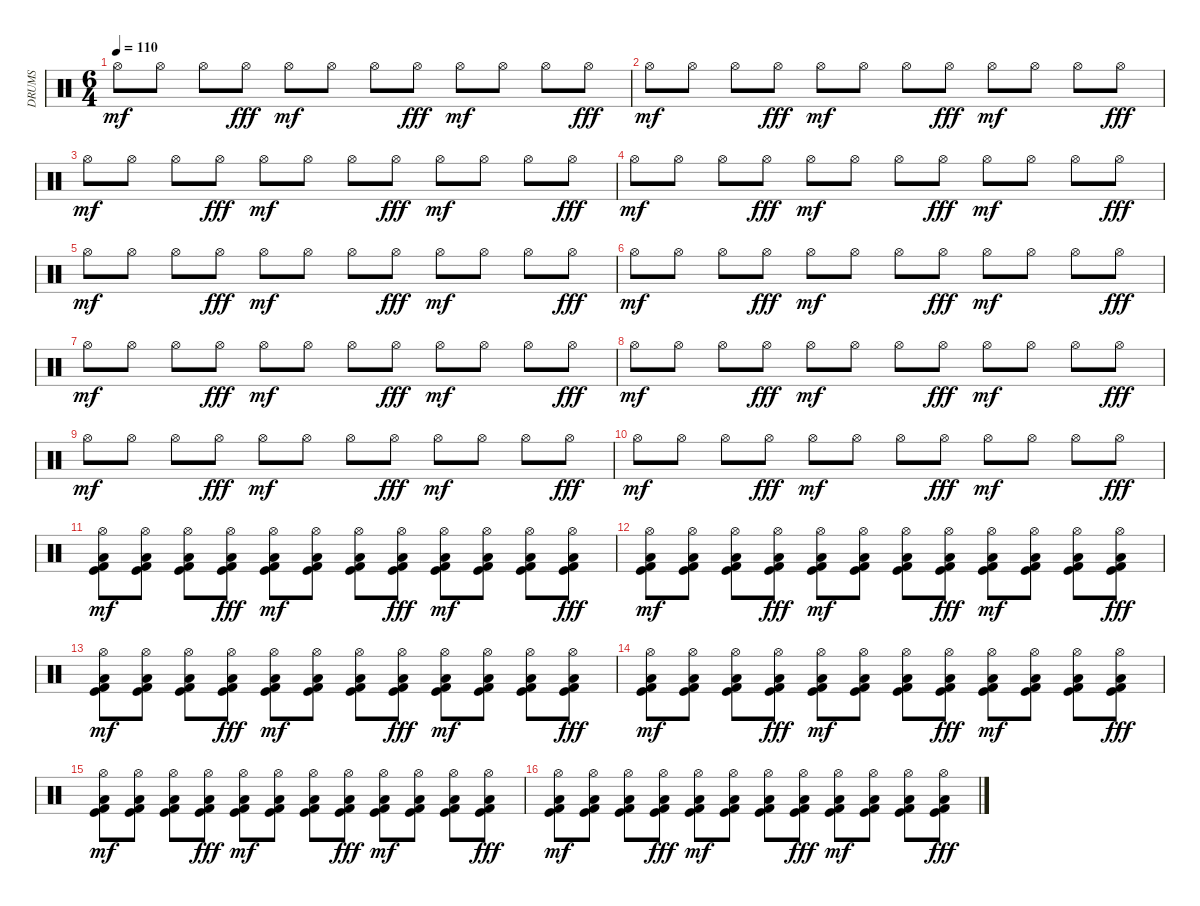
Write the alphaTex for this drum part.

\track ("DRUMS" "DRUMS") {instrument percussion}
\staff {score}
\articulation defaults
\ts (6 4)
\tempo 110
\clef neutral
\ks c "Hi-Hat (open)".8{dy mf} "Hi-Hat (open)".8 "Hi-Hat (open)".8 "Hi-Hat (open)".8{dy fff} "Hi-Hat (open)".8{dy mf} "Hi-Hat (open)".8 "Hi-Hat (open)".8 "Hi-Hat (open)".8{dy fff} "Hi-Hat (open)".8{dy mf} "Hi-Hat (open)".8 "Hi-Hat (open)".8 "Hi-Hat (open)".8{dy fff}
|
"Hi-Hat (open)".8{dy mf} "Hi-Hat (open)".8 "Hi-Hat (open)".8 "Hi-Hat (open)".8{dy fff} "Hi-Hat (open)".8{dy mf} "Hi-Hat (open)".8 "Hi-Hat (open)".8 "Hi-Hat (open)".8{dy fff} "Hi-Hat (open)".8{dy mf} "Hi-Hat (open)".8 "Hi-Hat (open)".8 "Hi-Hat (open)".8{dy fff} |
"Hi-Hat (open)".8{dy mf} "Hi-Hat (open)".8 "Hi-Hat (open)".8 "Hi-Hat (open)".8{dy fff} "Hi-Hat (open)".8{dy mf} "Hi-Hat (open)".8 "Hi-Hat (open)".8 "Hi-Hat (open)".8{dy fff} "Hi-Hat (open)".8{dy mf} "Hi-Hat (open)".8 "Hi-Hat (open)".8 "Hi-Hat (open)".8{dy fff} |
"Hi-Hat (open)".8{dy mf} "Hi-Hat (open)".8 "Hi-Hat (open)".8 "Hi-Hat (open)".8{dy fff} "Hi-Hat (open)".8{dy mf} "Hi-Hat (open)".8 "Hi-Hat (open)".8 "Hi-Hat (open)".8{dy fff} "Hi-Hat (open)".8{dy mf} "Hi-Hat (open)".8 "Hi-Hat (open)".8 "Hi-Hat (open)".8{dy fff} |
"Hi-Hat (open)".8{dy mf} "Hi-Hat (open)".8 "Hi-Hat (open)".8 "Hi-Hat (open)".8{dy fff} "Hi-Hat (open)".8{dy mf} "Hi-Hat (open)".8 "Hi-Hat (open)".8 "Hi-Hat (open)".8{dy fff} "Hi-Hat (open)".8{dy mf} "Hi-Hat (open)".8 "Hi-Hat (open)".8 "Hi-Hat (open)".8{dy fff} |
"Hi-Hat (open)".8{dy mf} "Hi-Hat (open)".8 "Hi-Hat (open)".8 "Hi-Hat (open)".8{dy fff} "Hi-Hat (open)".8{dy mf} "Hi-Hat (open)".8 "Hi-Hat (open)".8 "Hi-Hat (open)".8{dy fff} "Hi-Hat (open)".8{dy mf} "Hi-Hat (open)".8 "Hi-Hat (open)".8 "Hi-Hat (open)".8{dy fff} |
"Hi-Hat (open)".8{dy mf} "Hi-Hat (open)".8 "Hi-Hat (open)".8 "Hi-Hat (open)".8{dy fff} "Hi-Hat (open)".8{dy mf} "Hi-Hat (open)".8 "Hi-Hat (open)".8 "Hi-Hat (open)".8{dy fff} "Hi-Hat (open)".8{dy mf} "Hi-Hat (open)".8 "Hi-Hat (open)".8 "Hi-Hat (open)".8{dy fff} |
"Hi-Hat (open)".8{dy mf} "Hi-Hat (open)".8 "Hi-Hat (open)".8 "Hi-Hat (open)".8{dy fff} "Hi-Hat (open)".8{dy mf} "Hi-Hat (open)".8 "Hi-Hat (open)".8 "Hi-Hat (open)".8{dy fff} "Hi-Hat (open)".8{dy mf} "Hi-Hat (open)".8 "Hi-Hat (open)".8 "Hi-Hat (open)".8{dy fff} |
"Hi-Hat (open)".8{dy mf} "Hi-Hat (open)".8 "Hi-Hat (open)".8 "Hi-Hat (open)".8{dy fff} "Hi-Hat (open)".8{dy mf} "Hi-Hat (open)".8 "Hi-Hat (open)".8 "Hi-Hat (open)".8{dy fff} "Hi-Hat (open)".8{dy mf} "Hi-Hat (open)".8 "Hi-Hat (open)".8 "Hi-Hat (open)".8{dy fff} |
"Hi-Hat (open)".8{dy mf} "Hi-Hat (open)".8 "Hi-Hat (open)".8 "Hi-Hat (open)".8{dy fff} "Hi-Hat (open)".8{dy mf} "Hi-Hat (open)".8 "Hi-Hat (open)".8 "Hi-Hat (open)".8{dy fff} "Hi-Hat (open)".8{dy mf} "Hi-Hat (open)".8 "Hi-Hat (open)".8 "Hi-Hat (open)".8{dy fff} |
("Kick (hit)" "Kick (hit) 2" "Low Tom (hit)" "Hi-Hat (open)").8{dy mf} ("Kick (hit)" "Kick (hit) 2" "Low Tom (hit)" "Hi-Hat (open)").8 ("Kick (hit)" "Kick (hit) 2" "Low Tom (hit)" "Hi-Hat (open)").8 ("Kick (hit)" "Kick (hit) 2" "Low Tom (hit)" "Hi-Hat (open)").8{dy fff} ("Kick (hit)" "Kick (hit) 2" "Low Tom (hit)" "Hi-Hat (open)").8{dy mf} ("Kick (hit)" "Kick (hit) 2" "Low Tom (hit)" "Hi-Hat (open)").8 ("Kick (hit)" "Kick (hit) 2" "Low Tom (hit)" "Hi-Hat (open)").8 ("Kick (hit)" "Kick (hit) 2" "Low Tom (hit)" "Hi-Hat (open)").8{dy fff} ("Kick (hit)" "Kick (hit) 2" "Low Tom (hit)" "Hi-Hat (open)").8{dy mf} ("Kick (hit)" "Kick (hit) 2" "Low Tom (hit)" "Hi-Hat (open)").8 ("Kick (hit)" "Kick (hit) 2" "Low Tom (hit)" "Hi-Hat (open)").8 ("Kick (hit)" "Kick (hit) 2" "Low Tom (hit)" "Hi-Hat (open)").8{dy fff} |
("Kick (hit)" "Kick (hit) 2" "Low Tom (hit)" "Hi-Hat (open)").8{dy mf} ("Kick (hit)" "Kick (hit) 2" "Low Tom (hit)" "Hi-Hat (open)").8 ("Kick (hit)" "Kick (hit) 2" "Low Tom (hit)" "Hi-Hat (open)").8 ("Kick (hit)" "Kick (hit) 2" "Low Tom (hit)" "Hi-Hat (open)").8{dy fff} ("Kick (hit)" "Kick (hit) 2" "Low Tom (hit)" "Hi-Hat (open)").8{dy mf} ("Kick (hit)" "Kick (hit) 2" "Low Tom (hit)" "Hi-Hat (open)").8 ("Kick (hit)" "Kick (hit) 2" "Low Tom (hit)" "Hi-Hat (open)").8 ("Kick (hit)" "Kick (hit) 2" "Low Tom (hit)" "Hi-Hat (open)").8{dy fff} ("Kick (hit)" "Kick (hit) 2" "Low Tom (hit)" "Hi-Hat (open)").8{dy mf} ("Kick (hit)" "Kick (hit) 2" "Low Tom (hit)" "Hi-Hat (open)").8 ("Kick (hit)" "Kick (hit) 2" "Low Tom (hit)" "Hi-Hat (open)").8 ("Kick (hit)" "Kick (hit) 2" "Low Tom (hit)" "Hi-Hat (open)").8{dy fff} |
("Kick (hit)" "Kick (hit) 2" "Low Tom (hit)" "Hi-Hat (open)").8{dy mf} ("Kick (hit)" "Kick (hit) 2" "Low Tom (hit)" "Hi-Hat (open)").8 ("Kick (hit)" "Kick (hit) 2" "Low Tom (hit)" "Hi-Hat (open)").8 ("Kick (hit)" "Kick (hit) 2" "Low Tom (hit)" "Hi-Hat (open)").8{dy fff} ("Kick (hit)" "Kick (hit) 2" "Low Tom (hit)" "Hi-Hat (open)").8{dy mf} ("Kick (hit)" "Kick (hit) 2" "Low Tom (hit)" "Hi-Hat (open)").8 ("Kick (hit)" "Kick (hit) 2" "Low Tom (hit)" "Hi-Hat (open)").8 ("Kick (hit)" "Kick (hit) 2" "Low Tom (hit)" "Hi-Hat (open)").8{dy fff} ("Kick (hit)" "Kick (hit) 2" "Low Tom (hit)" "Hi-Hat (open)").8{dy mf} ("Kick (hit)" "Kick (hit) 2" "Low Tom (hit)" "Hi-Hat (open)").8 ("Kick (hit)" "Kick (hit) 2" "Low Tom (hit)" "Hi-Hat (open)").8 ("Kick (hit)" "Kick (hit) 2" "Low Tom (hit)" "Hi-Hat (open)").8{dy fff} |
("Kick (hit)" "Kick (hit) 2" "Low Tom (hit)" "Hi-Hat (open)").8{dy mf} ("Kick (hit)" "Kick (hit) 2" "Low Tom (hit)" "Hi-Hat (open)").8 ("Kick (hit)" "Kick (hit) 2" "Low Tom (hit)" "Hi-Hat (open)").8 ("Kick (hit)" "Kick (hit) 2" "Low Tom (hit)" "Hi-Hat (open)").8{dy fff} ("Kick (hit)" "Kick (hit) 2" "Low Tom (hit)" "Hi-Hat (open)").8{dy mf} ("Kick (hit)" "Kick (hit) 2" "Low Tom (hit)" "Hi-Hat (open)").8 ("Kick (hit)" "Kick (hit) 2" "Low Tom (hit)" "Hi-Hat (open)").8 ("Kick (hit)" "Kick (hit) 2" "Low Tom (hit)" "Hi-Hat (open)").8{dy fff} ("Kick (hit)" "Kick (hit) 2" "Low Tom (hit)" "Hi-Hat (open)").8{dy mf} ("Kick (hit)" "Kick (hit) 2" "Low Tom (hit)" "Hi-Hat (open)").8 ("Kick (hit)" "Kick (hit) 2" "Low Tom (hit)" "Hi-Hat (open)").8 ("Kick (hit)" "Kick (hit) 2" "Low Tom (hit)" "Hi-Hat (open)").8{dy fff} |
("Kick (hit)" "Kick (hit) 2" "Low Tom (hit)" "Hi-Hat (open)").8{dy mf} ("Kick (hit)" "Kick (hit) 2" "Low Tom (hit)" "Hi-Hat (open)").8 ("Kick (hit)" "Kick (hit) 2" "Low Tom (hit)" "Hi-Hat (open)").8 ("Kick (hit)" "Kick (hit) 2" "Low Tom (hit)" "Hi-Hat (open)").8{dy fff} ("Kick (hit)" "Kick (hit) 2" "Low Tom (hit)" "Hi-Hat (open)").8{dy mf} ("Kick (hit)" "Kick (hit) 2" "Low Tom (hit)" "Hi-Hat (open)").8 ("Kick (hit)" "Kick (hit) 2" "Low Tom (hit)" "Hi-Hat (open)").8 ("Kick (hit)" "Kick (hit) 2" "Low Tom (hit)" "Hi-Hat (open)").8{dy fff} ("Kick (hit)" "Kick (hit) 2" "Low Tom (hit)" "Hi-Hat (open)").8{dy mf} ("Kick (hit)" "Kick (hit) 2" "Low Tom (hit)" "Hi-Hat (open)").8 ("Kick (hit)" "Kick (hit) 2" "Low Tom (hit)" "Hi-Hat (open)").8 ("Kick (hit)" "Kick (hit) 2" "Low Tom (hit)" "Hi-Hat (open)").8{dy fff} |
("Kick (hit)" "Kick (hit) 2" "Low Tom (hit)" "Hi-Hat (open)").8{dy mf} ("Kick (hit)" "Kick (hit) 2" "Low Tom (hit)" "Hi-Hat (open)").8 ("Kick (hit)" "Kick (hit) 2" "Low Tom (hit)" "Hi-Hat (open)").8 ("Kick (hit)" "Kick (hit) 2" "Low Tom (hit)" "Hi-Hat (open)").8{dy fff} ("Kick (hit)" "Kick (hit) 2" "Low Tom (hit)" "Hi-Hat (open)").8{dy mf} ("Kick (hit)" "Kick (hit) 2" "Low Tom (hit)" "Hi-Hat (open)").8 ("Kick (hit)" "Kick (hit) 2" "Low Tom (hit)" "Hi-Hat (open)").8 ("Kick (hit)" "Kick (hit) 2" "Low Tom (hit)" "Hi-Hat (open)").8{dy fff} ("Kick (hit)" "Kick (hit) 2" "Low Tom (hit)" "Hi-Hat (open)").8{dy mf} ("Kick (hit)" "Kick (hit) 2" "Low Tom (hit)" "Hi-Hat (open)").8 ("Kick (hit)" "Kick (hit) 2" "Low Tom (hit)" "Hi-Hat (open)").8 ("Kick (hit)" "Kick (hit) 2" "Low Tom (hit)" "Hi-Hat (open)").8{dy fff}
